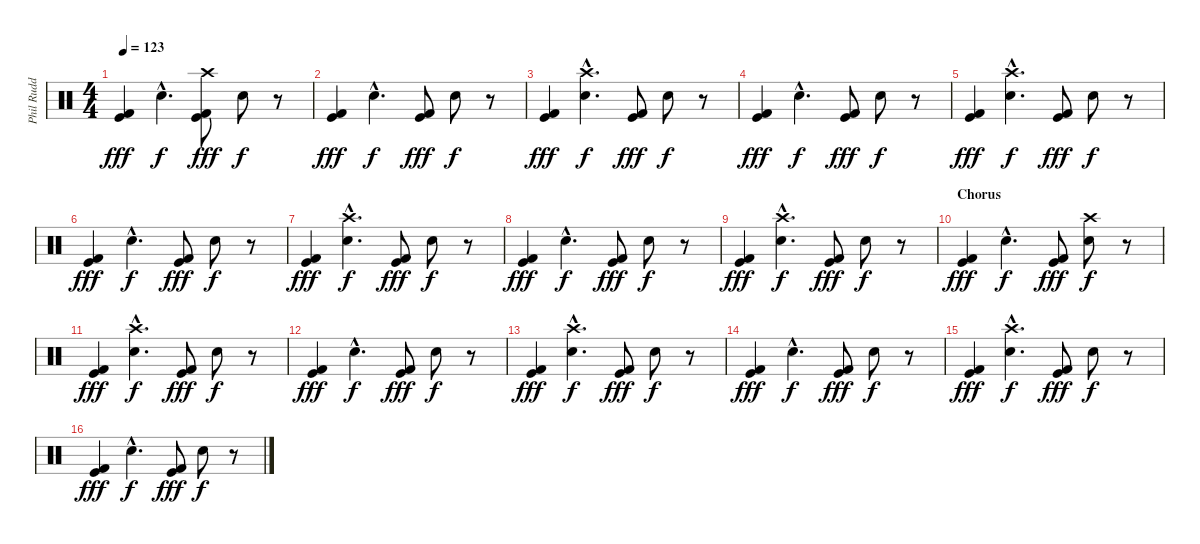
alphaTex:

\track ("Phil Rudd (Drums)" "Phil Rudd ") {instrument percussion}
\staff {score}
\articulation defaults
\ts (4 4)
\tempo 123
\clef neutral
\ks c
("Kick (hit) 2" "Kick (hit)").4{dy fff} "Snare (hit) 2"{hac}.4{d dy f} ("Kick (hit) 2" "Kick (hit)" "Crash high (hit)").8{dy fff} "Snare (hit) 2".8{dy f} r.8 |
("Kick (hit) 2" "Kick (hit)").4{dy fff} "Snare (hit) 2"{hac}.4{d dy f} ("Kick (hit) 2" "Kick (hit)").8{dy fff} "Snare (hit) 2".8{dy f} r.8 |
("Kick (hit) 2" "Kick (hit)").4{dy fff} ("Snare (hit) 2"{hac} "Crash high (hit)"{hac}).4{d dy f} ("Kick (hit) 2" "Kick (hit)").8{dy fff} "Snare (hit) 2".8{dy f} r.8 |
("Kick (hit) 2" "Kick (hit)").4{dy fff} "Snare (hit) 2"{hac}.4{d dy f} ("Kick (hit) 2" "Kick (hit)").8{dy fff} "Snare (hit) 2".8{dy f} r.8 |
("Kick (hit) 2" "Kick (hit)").4{dy fff} ("Snare (hit) 2"{hac} "Crash high (hit)"{hac}).4{d dy f} ("Kick (hit) 2" "Kick (hit)").8{dy fff} "Snare (hit) 2".8{dy f} r.8 |
("Kick (hit) 2" "Kick (hit)").4{dy fff} "Snare (hit) 2"{hac}.4{d dy f} ("Kick (hit) 2" "Kick (hit)").8{dy fff} "Snare (hit) 2".8{dy f} r.8 |
("Kick (hit) 2" "Kick (hit)").4{dy fff} ("Snare (hit) 2"{hac} "Crash high (hit)"{hac}).4{d dy f} ("Kick (hit) 2" "Kick (hit)").8{dy fff} "Snare (hit) 2".8{dy f} r.8 |
("Kick (hit) 2" "Kick (hit)").4{dy fff} "Snare (hit) 2"{hac}.4{d dy f} ("Kick (hit) 2" "Kick (hit)").8{dy fff} "Snare (hit) 2".8{dy f} r.8 |
("Kick (hit) 2" "Kick (hit)").4{dy fff} ("Snare (hit) 2"{hac} "Crash high (hit)"{hac}).4{d dy f} ("Kick (hit) 2" "Kick (hit)").8{dy fff} "Snare (hit) 2".8{dy f} r.8 |
\section ("" "Chorus")
("Kick (hit) 2" "Kick (hit)").4{dy fff} "Snare (hit) 2"{hac}.4{d dy f} ("Kick (hit) 2" "Kick (hit)").8{dy fff} ("Snare (hit) 2" "Crash high (hit)").8{dy f} r.8 |
("Kick (hit) 2" "Kick (hit)").4{dy fff} ("Snare (hit) 2"{hac} "Crash high (hit)"{hac}).4{d dy f} ("Kick (hit) 2" "Kick (hit)").8{dy fff} "Snare (hit) 2".8{dy f} r.8 |
("Kick (hit) 2" "Kick (hit)").4{dy fff} "Snare (hit) 2"{hac}.4{d dy f} ("Kick (hit) 2" "Kick (hit)").8{dy fff} "Snare (hit) 2".8{dy f} r.8 |
("Kick (hit) 2" "Kick (hit)").4{dy fff} ("Snare (hit) 2"{hac} "Crash high (hit)"{hac}).4{d dy f} ("Kick (hit) 2" "Kick (hit)").8{dy fff} "Snare (hit) 2".8{dy f} r.8 |
("Kick (hit) 2" "Kick (hit)").4{dy fff} "Snare (hit) 2"{hac}.4{d dy f} ("Kick (hit) 2" "Kick (hit)").8{dy fff} "Snare (hit) 2".8{dy f} r.8 |
("Kick (hit) 2" "Kick (hit)").4{dy fff} ("Snare (hit) 2"{hac} "Crash high (hit)"{hac}).4{d dy f} ("Kick (hit) 2" "Kick (hit)").8{dy fff} "Snare (hit) 2".8{dy f} r.8 |
("Kick (hit) 2" "Kick (hit)").4{dy fff} "Snare (hit) 2"{hac}.4{d dy f} ("Kick (hit) 2" "Kick (hit)").8{dy fff} "Snare (hit) 2".8{dy f} r.8
